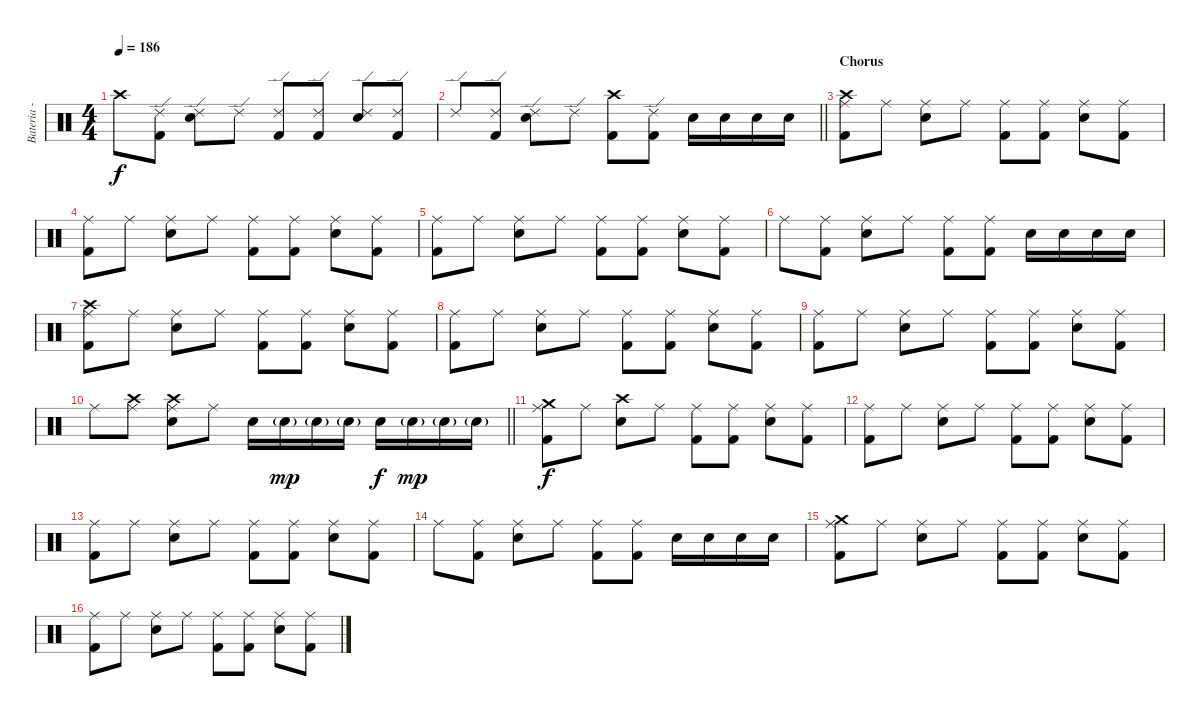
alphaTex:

\track ("Bateria - Larzon" "Bateria - ") {instrument percussion}
\staff {score}
\articulation defaults
\ts (4 4)
\tempo 186
\clef neutral
\ks c "Crash high (hit)".8{dy f}
("Kick (hit) 2" "Ride (edge) 2").8 ("Snare (hit) 2" "Ride (edge) 2").8 "Ride (edge) 2".8 ("Kick (hit) 2" "Ride (edge) 2").8 ("Kick (hit) 2" "Ride (edge) 2").8 ("Snare (hit) 2" "Ride (edge) 2").8 ("Kick (hit) 2" "Ride (edge) 2").8 |
\barLineRight lightlight "Ride (edge) 2".8
("Kick (hit) 2" "Ride (edge) 2").8 ("Snare (hit) 2" "Ride (edge) 2").8 "Ride (edge) 2".8 ("Kick (hit) 2" "Crash high (hit)").8 ("Kick (hit) 2" "Ride (edge) 2").8 "Snare (hit) 2".16 "Snare (hit) 2".16 "Snare (hit) 2".16 "Snare (hit) 2".16 |
\section ("" "Chorus")
("Kick (hit) 2" "Crash high (hit)" "Ride (middle)").8 "Ride (middle)".8 ("Snare (hit) 2" "Ride (middle)").8 "Ride (middle)".8 ("Kick (hit) 2" "Ride (middle)").8 ("Kick (hit) 2" "Ride (middle)").8 ("Snare (hit) 2" "Ride (middle)").8 ("Kick (hit) 2" "Ride (middle)").8 |
("Kick (hit) 2" "Ride (middle)").8 "Ride (middle)".8 ("Snare (hit) 2" "Ride (middle)").8 "Ride (middle)".8 ("Kick (hit) 2" "Ride (middle)").8 ("Kick (hit) 2" "Ride (middle)").8 ("Snare (hit) 2" "Ride (middle)").8 ("Kick (hit) 2" "Ride (middle)").8 |
("Kick (hit) 2" "Ride (middle)").8 "Ride (middle)".8 ("Snare (hit) 2" "Ride (middle)").8 "Ride (middle)".8 ("Kick (hit) 2" "Ride (middle)").8 ("Kick (hit) 2" "Ride (middle)").8 ("Snare (hit) 2" "Ride (middle)").8 ("Kick (hit) 2" "Ride (middle)").8 |
"Ride (middle)".8 ("Kick (hit) 2" "Ride (middle)").8 ("Snare (hit) 2" "Ride (middle)").8 "Ride (middle)".8 ("Kick (hit) 2" "Ride (middle)").8 ("Kick (hit) 2" "Ride (middle)").8 "Snare (hit) 2".16 "Snare (hit) 2".16 "Snare (hit) 2".16 "Snare (hit) 2".16 |
("Kick (hit) 2" "Crash high (hit)" "Ride (middle)").8 "Ride (middle)".8 ("Snare (hit) 2" "Ride (middle)").8 "Ride (middle)".8 ("Kick (hit) 2" "Ride (middle)").8 ("Kick (hit) 2" "Ride (middle)").8 ("Snare (hit) 2" "Ride (middle)").8 ("Kick (hit) 2" "Ride (middle)").8 |
("Kick (hit) 2" "Ride (middle)").8 "Ride (middle)".8 ("Snare (hit) 2" "Ride (middle)").8 "Ride (middle)".8 ("Kick (hit) 2" "Ride (middle)").8 ("Kick (hit) 2" "Ride (middle)").8 ("Snare (hit) 2" "Ride (middle)").8 ("Kick (hit) 2" "Ride (middle)").8 |
("Kick (hit) 2" "Ride (middle)").8 "Ride (middle)".8 ("Snare (hit) 2" "Ride (middle)").8 "Ride (middle)".8 ("Kick (hit) 2" "Ride (middle)").8 ("Kick (hit) 2" "Ride (middle)").8 ("Snare (hit) 2" "Ride (middle)").8 ("Kick (hit) 2" "Ride (middle)").8 |
\barLineRight lightlight "Ride (middle)".8
("Crash high (hit)" "Ride (middle)").8 ("Crash high (hit)" "Snare (hit) 2" "Ride (middle)").8 "Ride (middle)".8 "Snare (hit) 2".16 "Snare (hit) 2"{g}.16{dy mp} "Snare (hit) 2"{g}.16 "Snare (hit) 2"{g}.16 "Snare (hit) 2".16{dy f} "Snare (hit) 2"{g}.16{dy mp} "Snare (hit) 2"{g}.16 "Snare (hit) 2"{g}.16 |
("Kick (hit) 2" "Crash medium (hit)" "Ride (middle)").8{dy f} "Ride (middle)".8 ("Snare (hit) 2" "Crash high (hit)").8 "Ride (middle)".8 ("Kick (hit) 2" "Ride (middle)").8 ("Kick (hit) 2" "Ride (middle)").8 ("Snare (hit) 2" "Ride (middle)").8 ("Kick (hit) 2" "Ride (middle)").8 |
("Kick (hit) 2" "Ride (middle)").8 "Ride (middle)".8 ("Snare (hit) 2" "Ride (middle)").8 "Ride (middle)".8 ("Kick (hit) 2" "Ride (middle)").8 ("Kick (hit) 2" "Ride (middle)").8 ("Snare (hit) 2" "Ride (middle)").8 ("Kick (hit) 2" "Ride (middle)").8 |
("Kick (hit) 2" "Ride (middle)").8 "Ride (middle)".8 ("Snare (hit) 2" "Ride (middle)").8 "Ride (middle)".8 ("Kick (hit) 2" "Ride (middle)").8 ("Kick (hit) 2" "Ride (middle)").8 ("Snare (hit) 2" "Ride (middle)").8 ("Kick (hit) 2" "Ride (middle)").8 |
"Ride (middle)".8 ("Kick (hit) 2" "Ride (middle)").8 ("Snare (hit) 2" "Ride (middle)").8 "Ride (middle)".8 ("Kick (hit) 2" "Ride (middle)").8 ("Kick (hit) 2" "Ride (middle)").8 "Snare (hit) 2".16 "Snare (hit) 2".16 "Snare (hit) 2".16 "Snare (hit) 2".16 |
("Kick (hit) 2" "Crash medium (hit)" "Ride (middle)").8 "Ride (middle)".8 ("Snare (hit) 2" "Ride (middle)").8 "Ride (middle)".8 ("Kick (hit) 2" "Ride (middle)").8 ("Kick (hit) 2" "Ride (middle)").8 ("Snare (hit) 2" "Ride (middle)").8 ("Kick (hit) 2" "Ride (middle)").8 |
("Kick (hit) 2" "Ride (middle)").8 "Ride (middle)".8 ("Snare (hit) 2" "Ride (middle)").8 "Ride (middle)".8 ("Kick (hit) 2" "Ride (middle)").8 ("Kick (hit) 2" "Ride (middle)").8 ("Snare (hit) 2" "Ride (middle)").8 ("Kick (hit) 2" "Ride (middle)").8
